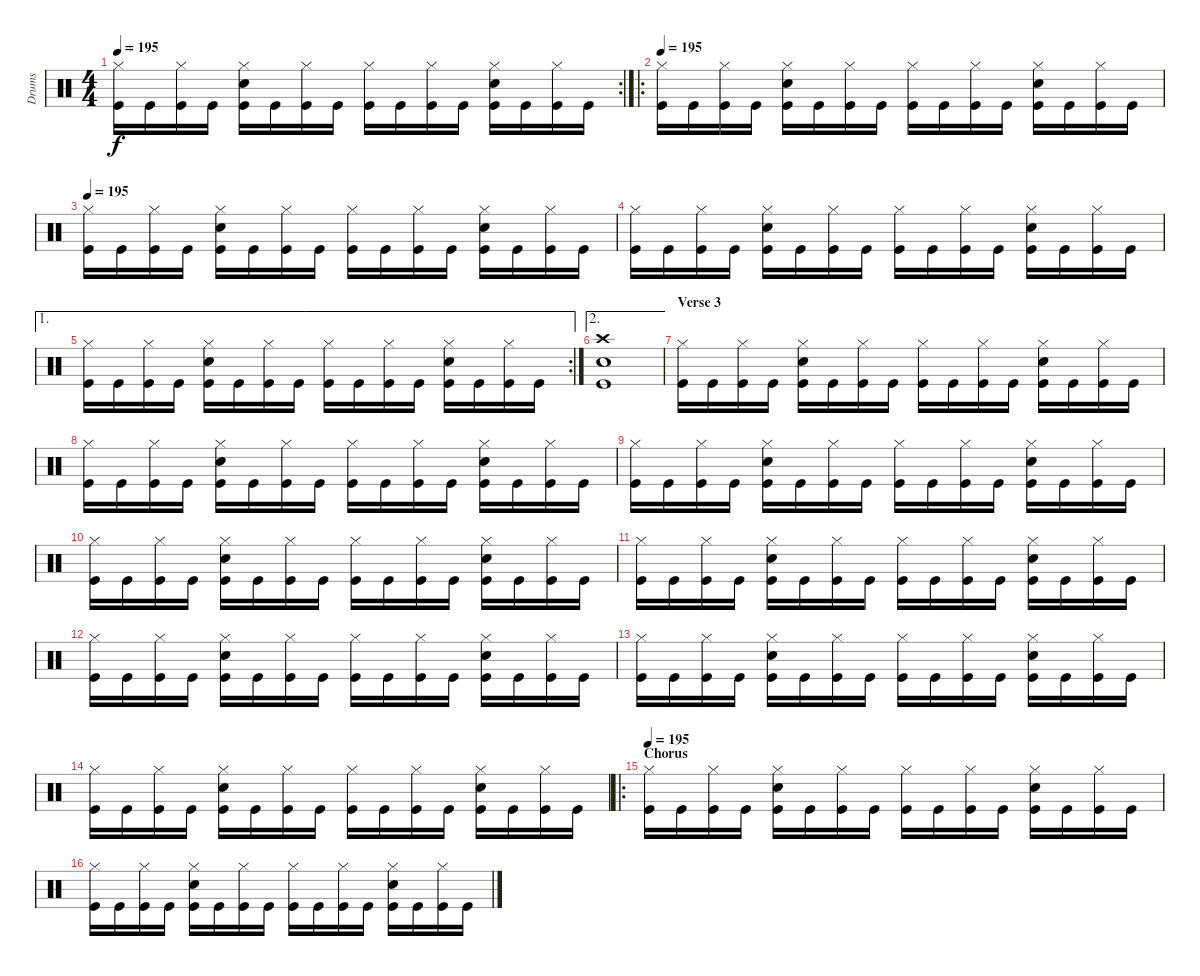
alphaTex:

\track ("Drums" "Drums") {instrument percussion}
\staff {score}
\articulation defaults
\rc 2
\ts (4 4)
\tempo 195
\clef neutral
\ks c
("Hi-Hat (closed)" "Kick (hit)").16{dy f} "Kick (hit)".16 ("Hi-Hat (closed)" "Kick (hit)").16 "Kick (hit)".16 ("Hi-Hat (closed)" "Snare (hit) 2" "Kick (hit)").16 "Kick (hit)".16 ("Hi-Hat (closed)" "Kick (hit)").16 "Kick (hit)".16 ("Hi-Hat (closed)" "Kick (hit)").16 "Kick (hit)".16 ("Hi-Hat (closed)" "Kick (hit)").16 "Kick (hit)".16 ("Hi-Hat (closed)" "Snare (hit) 2" "Kick (hit)").16 "Kick (hit)".16 ("Hi-Hat (closed)" "Kick (hit)").16 "Kick (hit)".16 |
\ro
\tempo 195
("Hi-Hat (closed)" "Kick (hit)").16 "Kick (hit)".16 ("Hi-Hat (closed)" "Kick (hit)").16 "Kick (hit)".16 ("Hi-Hat (closed)" "Snare (hit) 2" "Kick (hit)").16 "Kick (hit)".16 ("Hi-Hat (closed)" "Kick (hit)").16 "Kick (hit)".16 ("Hi-Hat (closed)" "Kick (hit)").16 "Kick (hit)".16 ("Hi-Hat (closed)" "Kick (hit)").16 "Kick (hit)".16 ("Hi-Hat (closed)" "Snare (hit) 2" "Kick (hit)").16 "Kick (hit)".16 ("Hi-Hat (closed)" "Kick (hit)").16 "Kick (hit)".16 |
\tempo 195
("Hi-Hat (closed)" "Kick (hit)").16 "Kick (hit)".16 ("Hi-Hat (closed)" "Kick (hit)").16 "Kick (hit)".16 ("Hi-Hat (closed)" "Snare (hit) 2" "Kick (hit)").16 "Kick (hit)".16 ("Hi-Hat (closed)" "Kick (hit)").16 "Kick (hit)".16 ("Hi-Hat (closed)" "Kick (hit)").16 "Kick (hit)".16 ("Hi-Hat (closed)" "Kick (hit)").16 "Kick (hit)".16 ("Hi-Hat (closed)" "Snare (hit) 2" "Kick (hit)").16 "Kick (hit)".16 ("Hi-Hat (closed)" "Kick (hit)").16 "Kick (hit)".16 |
("Hi-Hat (closed)" "Kick (hit)").16 "Kick (hit)".16 ("Hi-Hat (closed)" "Kick (hit)").16 "Kick (hit)".16 ("Hi-Hat (closed)" "Snare (hit) 2" "Kick (hit)").16 "Kick (hit)".16 ("Hi-Hat (closed)" "Kick (hit)").16 "Kick (hit)".16 ("Hi-Hat (closed)" "Kick (hit)").16 "Kick (hit)".16 ("Hi-Hat (closed)" "Kick (hit)").16 "Kick (hit)".16 ("Hi-Hat (closed)" "Snare (hit) 2" "Kick (hit)").16 "Kick (hit)".16 ("Hi-Hat (closed)" "Kick (hit)").16 "Kick (hit)".16 |
\ae 1
\rc 2
("Hi-Hat (closed)" "Kick (hit)").16 "Kick (hit)".16 ("Hi-Hat (closed)" "Kick (hit)").16 "Kick (hit)".16 ("Hi-Hat (closed)" "Snare (hit) 2" "Kick (hit)").16 "Kick (hit)".16 ("Hi-Hat (closed)" "Kick (hit)").16 "Kick (hit)".16 ("Hi-Hat (closed)" "Kick (hit)").16 "Kick (hit)".16 ("Hi-Hat (closed)" "Kick (hit)").16 "Kick (hit)".16 ("Hi-Hat (closed)" "Snare (hit) 2" "Kick (hit)").16 "Kick (hit)".16 ("Hi-Hat (closed)" "Kick (hit)").16 "Kick (hit)".16 |
\ae 2
("Crash high (hit)" "Snare (hit) 2" "Kick (hit)").1 |
\section ("" "Verse 3")
("Hi-Hat (closed)" "Kick (hit)").16 "Kick (hit)".16 ("Hi-Hat (closed)" "Kick (hit)").16 "Kick (hit)".16 ("Hi-Hat (closed)" "Snare (hit) 2" "Kick (hit)").16 "Kick (hit)".16 ("Hi-Hat (closed)" "Kick (hit)").16 "Kick (hit)".16 ("Hi-Hat (closed)" "Kick (hit)").16 "Kick (hit)".16 ("Hi-Hat (closed)" "Kick (hit)").16 "Kick (hit)".16 ("Hi-Hat (closed)" "Snare (hit) 2" "Kick (hit)").16 "Kick (hit)".16 ("Hi-Hat (closed)" "Kick (hit)").16 "Kick (hit)".16 |
("Hi-Hat (closed)" "Kick (hit)").16 "Kick (hit)".16 ("Hi-Hat (closed)" "Kick (hit)").16 "Kick (hit)".16 ("Hi-Hat (closed)" "Snare (hit) 2" "Kick (hit)").16 "Kick (hit)".16 ("Hi-Hat (closed)" "Kick (hit)").16 "Kick (hit)".16 ("Hi-Hat (closed)" "Kick (hit)").16 "Kick (hit)".16 ("Hi-Hat (closed)" "Kick (hit)").16 "Kick (hit)".16 ("Hi-Hat (closed)" "Snare (hit) 2" "Kick (hit)").16 "Kick (hit)".16 ("Hi-Hat (closed)" "Kick (hit)").16 "Kick (hit)".16 |
("Hi-Hat (closed)" "Kick (hit)").16 "Kick (hit)".16 ("Hi-Hat (closed)" "Kick (hit)").16 "Kick (hit)".16 ("Hi-Hat (closed)" "Snare (hit) 2" "Kick (hit)").16 "Kick (hit)".16 ("Hi-Hat (closed)" "Kick (hit)").16 "Kick (hit)".16 ("Hi-Hat (closed)" "Kick (hit)").16 "Kick (hit)".16 ("Hi-Hat (closed)" "Kick (hit)").16 "Kick (hit)".16 ("Hi-Hat (closed)" "Snare (hit) 2" "Kick (hit)").16 "Kick (hit)".16 ("Hi-Hat (closed)" "Kick (hit)").16 "Kick (hit)".16 |
("Hi-Hat (closed)" "Kick (hit)").16 "Kick (hit)".16 ("Hi-Hat (closed)" "Kick (hit)").16 "Kick (hit)".16 ("Hi-Hat (closed)" "Snare (hit) 2" "Kick (hit)").16 "Kick (hit)".16 ("Hi-Hat (closed)" "Kick (hit)").16 "Kick (hit)".16 ("Hi-Hat (closed)" "Kick (hit)").16 "Kick (hit)".16 ("Hi-Hat (closed)" "Kick (hit)").16 "Kick (hit)".16 ("Hi-Hat (closed)" "Snare (hit) 2" "Kick (hit)").16 "Kick (hit)".16 ("Hi-Hat (closed)" "Kick (hit)").16 "Kick (hit)".16 |
("Hi-Hat (closed)" "Kick (hit)").16 "Kick (hit)".16 ("Hi-Hat (closed)" "Kick (hit)").16 "Kick (hit)".16 ("Hi-Hat (closed)" "Snare (hit) 2" "Kick (hit)").16 "Kick (hit)".16 ("Hi-Hat (closed)" "Kick (hit)").16 "Kick (hit)".16 ("Hi-Hat (closed)" "Kick (hit)").16 "Kick (hit)".16 ("Hi-Hat (closed)" "Kick (hit)").16 "Kick (hit)".16 ("Hi-Hat (closed)" "Snare (hit) 2" "Kick (hit)").16 "Kick (hit)".16 ("Hi-Hat (closed)" "Kick (hit)").16 "Kick (hit)".16 |
("Hi-Hat (closed)" "Kick (hit)").16 "Kick (hit)".16 ("Hi-Hat (closed)" "Kick (hit)").16 "Kick (hit)".16 ("Hi-Hat (closed)" "Snare (hit) 2" "Kick (hit)").16 "Kick (hit)".16 ("Hi-Hat (closed)" "Kick (hit)").16 "Kick (hit)".16 ("Hi-Hat (closed)" "Kick (hit)").16 "Kick (hit)".16 ("Hi-Hat (closed)" "Kick (hit)").16 "Kick (hit)".16 ("Hi-Hat (closed)" "Snare (hit) 2" "Kick (hit)").16 "Kick (hit)".16 ("Hi-Hat (closed)" "Kick (hit)").16 "Kick (hit)".16 |
("Hi-Hat (closed)" "Kick (hit)").16 "Kick (hit)".16 ("Hi-Hat (closed)" "Kick (hit)").16 "Kick (hit)".16 ("Hi-Hat (closed)" "Snare (hit) 2" "Kick (hit)").16 "Kick (hit)".16 ("Hi-Hat (closed)" "Kick (hit)").16 "Kick (hit)".16 ("Hi-Hat (closed)" "Kick (hit)").16 "Kick (hit)".16 ("Hi-Hat (closed)" "Kick (hit)").16 "Kick (hit)".16 ("Hi-Hat (closed)" "Snare (hit) 2" "Kick (hit)").16 "Kick (hit)".16 ("Hi-Hat (closed)" "Kick (hit)").16 "Kick (hit)".16 |
("Hi-Hat (closed)" "Kick (hit)").16 "Kick (hit)".16 ("Hi-Hat (closed)" "Kick (hit)").16 "Kick (hit)".16 ("Hi-Hat (closed)" "Snare (hit) 2" "Kick (hit)").16 "Kick (hit)".16 ("Hi-Hat (closed)" "Kick (hit)").16 "Kick (hit)".16 ("Hi-Hat (closed)" "Kick (hit)").16 "Kick (hit)".16 ("Hi-Hat (closed)" "Kick (hit)").16 "Kick (hit)".16 ("Hi-Hat (closed)" "Snare (hit) 2" "Kick (hit)").16 "Kick (hit)".16 ("Hi-Hat (closed)" "Kick (hit)").16 "Kick (hit)".16 |
\ro
\section ("" "Chorus")
\tempo 195
("Hi-Hat (closed)" "Kick (hit)").16 "Kick (hit)".16 ("Hi-Hat (closed)" "Kick (hit)").16 "Kick (hit)".16 ("Hi-Hat (closed)" "Snare (hit) 2" "Kick (hit)").16 "Kick (hit)".16 ("Hi-Hat (closed)" "Kick (hit)").16 "Kick (hit)".16 ("Hi-Hat (closed)" "Kick (hit)").16 "Kick (hit)".16 ("Hi-Hat (closed)" "Kick (hit)").16 "Kick (hit)".16 ("Hi-Hat (closed)" "Snare (hit) 2" "Kick (hit)").16 "Kick (hit)".16 ("Hi-Hat (closed)" "Kick (hit)").16 "Kick (hit)".16 |
("Hi-Hat (closed)" "Kick (hit)").16 "Kick (hit)".16 ("Hi-Hat (closed)" "Kick (hit)").16 "Kick (hit)".16 ("Hi-Hat (closed)" "Snare (hit) 2" "Kick (hit)").16 "Kick (hit)".16 ("Hi-Hat (closed)" "Kick (hit)").16 "Kick (hit)".16 ("Hi-Hat (closed)" "Kick (hit)").16 "Kick (hit)".16 ("Hi-Hat (closed)" "Kick (hit)").16 "Kick (hit)".16 ("Hi-Hat (closed)" "Snare (hit) 2" "Kick (hit)").16 "Kick (hit)".16 ("Hi-Hat (closed)" "Kick (hit)").16 "Kick (hit)".16
